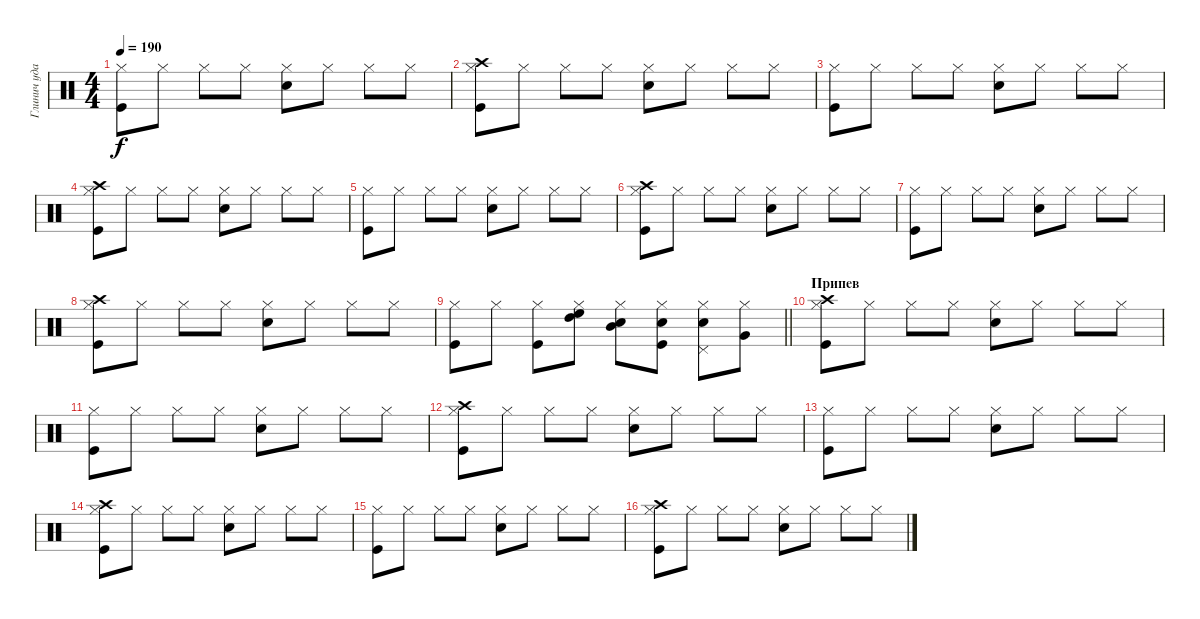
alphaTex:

\track ("Глинич ударные" "Глинич уда") {instrument percussion}
\staff {score}
\articulation defaults
\ts (4 4)
\tempo 190
\clef neutral
\ks c
("Hi-Hat (closed)" "Kick (hit)").8{dy f} "Hi-Hat (closed)".8 "Hi-Hat (closed)".8 "Hi-Hat (closed)".8 ("Hi-Hat (closed)" "Snare (hit) 2").8 "Hi-Hat (closed)".8 "Hi-Hat (closed)".8 "Hi-Hat (closed)".8 |
("Hi-Hat (closed)" "Kick (hit)" "Crash high (hit)").8 "Hi-Hat (closed)".8 "Hi-Hat (closed)".8 "Hi-Hat (closed)".8 ("Hi-Hat (closed)" "Snare (hit) 2").8 "Hi-Hat (closed)".8 "Hi-Hat (closed)".8 "Hi-Hat (closed)".8 |
("Hi-Hat (closed)" "Kick (hit)").8 "Hi-Hat (closed)".8 "Hi-Hat (closed)".8 "Hi-Hat (closed)".8 ("Hi-Hat (closed)" "Snare (hit) 2").8 "Hi-Hat (closed)".8 "Hi-Hat (closed)".8 "Hi-Hat (closed)".8 |
("Hi-Hat (closed)" "Kick (hit)" "Crash high (hit)").8 "Hi-Hat (closed)".8 "Hi-Hat (closed)".8 "Hi-Hat (closed)".8 ("Hi-Hat (closed)" "Snare (hit) 2").8 "Hi-Hat (closed)".8 "Hi-Hat (closed)".8 "Hi-Hat (closed)".8 |
("Hi-Hat (closed)" "Kick (hit)").8 "Hi-Hat (closed)".8 "Hi-Hat (closed)".8 "Hi-Hat (closed)".8 ("Hi-Hat (closed)" "Snare (hit) 2").8 "Hi-Hat (closed)".8 "Hi-Hat (closed)".8 "Hi-Hat (closed)".8 |
("Hi-Hat (closed)" "Kick (hit)" "Crash high (hit)").8 "Hi-Hat (closed)".8 "Hi-Hat (closed)".8 "Hi-Hat (closed)".8 ("Hi-Hat (closed)" "Snare (hit) 2").8 "Hi-Hat (closed)".8 "Hi-Hat (closed)".8 "Hi-Hat (closed)".8 |
("Hi-Hat (closed)" "Kick (hit)").8 "Hi-Hat (closed)".8 "Hi-Hat (closed)".8 "Hi-Hat (closed)".8 ("Hi-Hat (closed)" "Snare (hit) 2").8 "Hi-Hat (closed)".8 "Hi-Hat (closed)".8 "Hi-Hat (closed)".8 |
("Hi-Hat (closed)" "Kick (hit)" "Crash high (hit)").8 "Hi-Hat (closed)".8 "Hi-Hat (closed)".8 "Hi-Hat (closed)".8 ("Hi-Hat (closed)" "Snare (hit) 2").8 "Hi-Hat (closed)".8 "Hi-Hat (closed)".8 "Hi-Hat (closed)".8 |
\barLineRight lightlight
("Hi-Hat (closed)" "Kick (hit)").8 "Hi-Hat (closed)".8 ("Hi-Hat (closed)" "Kick (hit)").8 ("Hi-Hat (closed)" "High Tom (hit)" "High Floor Tom (hit)").8 ("Hi-Hat (closed)" "Mid Tom (hit)" "Snare (hit) 2").8 ("Hi-Hat (closed)" "Kick (hit)" "Snare (hit) 2").8 ("Hi-Hat (closed)" "Pedal Hi-Hat (hit)" "Snare (hit) 2").8 ("Hi-Hat (closed)" "Very Low Tom (hit)").8 |
\section ("" "Припев")
("Hi-Hat (closed)" "Kick (hit)" "Crash high (hit)").8 "Hi-Hat (closed)".8 "Hi-Hat (closed)".8 "Hi-Hat (closed)".8 ("Hi-Hat (closed)" "Snare (hit) 2").8 "Hi-Hat (closed)".8 "Hi-Hat (closed)".8 "Hi-Hat (closed)".8 |
("Hi-Hat (closed)" "Kick (hit)").8 "Hi-Hat (closed)".8 "Hi-Hat (closed)".8 "Hi-Hat (closed)".8 ("Hi-Hat (closed)" "Snare (hit) 2").8 "Hi-Hat (closed)".8 "Hi-Hat (closed)".8 "Hi-Hat (closed)".8 |
("Hi-Hat (closed)" "Kick (hit)" "Crash high (hit)").8 "Hi-Hat (closed)".8 "Hi-Hat (closed)".8 "Hi-Hat (closed)".8 ("Hi-Hat (closed)" "Snare (hit) 2").8 "Hi-Hat (closed)".8 "Hi-Hat (closed)".8 "Hi-Hat (closed)".8 |
("Hi-Hat (closed)" "Kick (hit)").8 "Hi-Hat (closed)".8 "Hi-Hat (closed)".8 "Hi-Hat (closed)".8 ("Hi-Hat (closed)" "Snare (hit) 2").8 "Hi-Hat (closed)".8 "Hi-Hat (closed)".8 "Hi-Hat (closed)".8 |
("Hi-Hat (closed)" "Kick (hit)" "Crash high (hit)").8 "Hi-Hat (closed)".8 "Hi-Hat (closed)".8 "Hi-Hat (closed)".8 ("Hi-Hat (closed)" "Snare (hit) 2").8 "Hi-Hat (closed)".8 "Hi-Hat (closed)".8 "Hi-Hat (closed)".8 |
("Hi-Hat (closed)" "Kick (hit)").8 "Hi-Hat (closed)".8 "Hi-Hat (closed)".8 "Hi-Hat (closed)".8 ("Hi-Hat (closed)" "Snare (hit) 2").8 "Hi-Hat (closed)".8 "Hi-Hat (closed)".8 "Hi-Hat (closed)".8 |
("Hi-Hat (closed)" "Kick (hit)" "Crash high (hit)").8 "Hi-Hat (closed)".8 "Hi-Hat (closed)".8 "Hi-Hat (closed)".8 ("Hi-Hat (closed)" "Snare (hit) 2").8 "Hi-Hat (closed)".8 "Hi-Hat (closed)".8 "Hi-Hat (closed)".8
